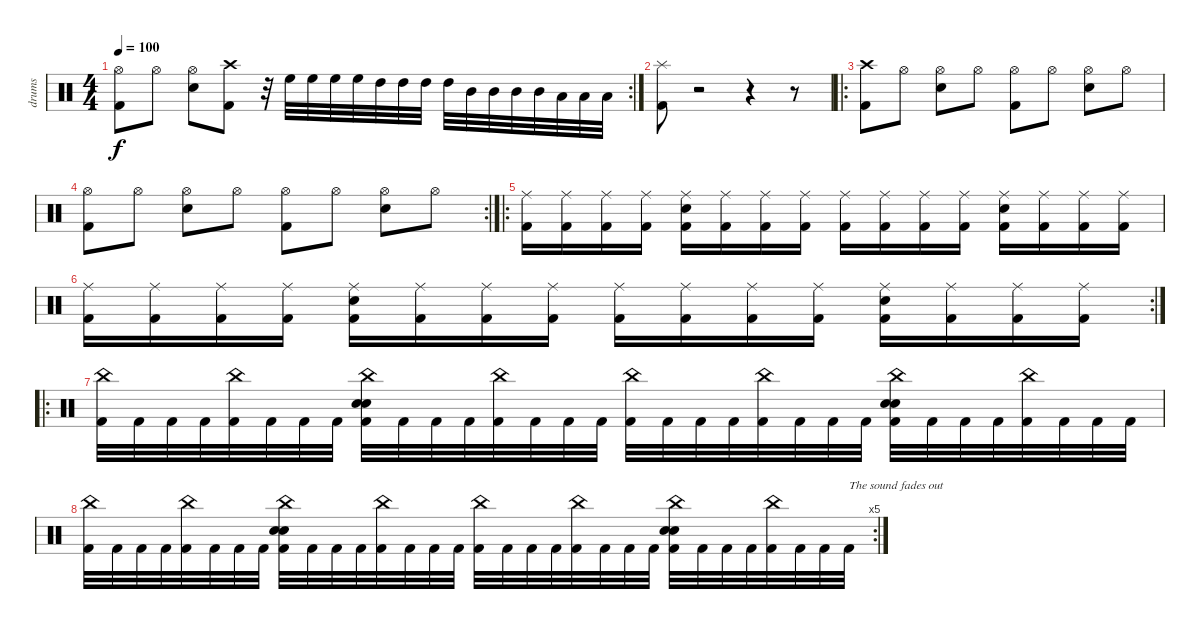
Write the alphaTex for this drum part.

\track ("drums" "drums") {instrument percussion}
\staff {score}
\articulation defaults
\rc 2
\ts (4 4)
\tempo 100
\clef neutral
\ks c
("Hi-Hat (open)" "Kick (hit) 2").8{dy f} "Hi-Hat (open)".8 ("Hi-Hat (open)" "Electric Snare (hit)").8 ("Crash high (hit)" "Kick (hit) 2").8 r.32 "High Floor Tom (hit)".32 "High Floor Tom (hit)".32 "High Floor Tom (hit)".32 "High Floor Tom (hit)".32 "High Tom (hit)".32 "High Tom (hit)".32 "High Tom (hit)".32 "High Tom (hit)".32 "Mid Tom (hit)".32 "Mid Tom (hit)".32 "Mid Tom (hit)".32 "Mid Tom (hit)".32 "Low Tom (hit)".32 "Low Tom (hit)".32 "Low Tom (hit)".32 |
("Splash (hit)" "Kick (hit) 2").8 r.2 r.4 r.8 |
\ro
\section ("" "")
("Kick (hit) 2" "Crash high (hit)").8 "Hi-Hat (open)".8 ("Electric Snare (hit)" "Hi-Hat (open)").8 "Hi-Hat (open)".8 ("Kick (hit) 2" "Hi-Hat (open)").8 "Hi-Hat (open)".8 ("Electric Snare (hit)" "Hi-Hat (open)").8 "Hi-Hat (open)".8 |
\rc 2
("Kick (hit) 2" "Hi-Hat (open)").8 "Hi-Hat (open)".8 ("Electric Snare (hit)" "Hi-Hat (open)").8 "Hi-Hat (open)".8 ("Kick (hit) 2" "Hi-Hat (open)").8 "Hi-Hat (open)".8 ("Electric Snare (hit)" "Hi-Hat (open)").8 "Hi-Hat (open)".8 |
\ro
("Ride (middle)" "Kick (hit) 2").16 ("Ride (middle)" "Kick (hit) 2").16 ("Ride (middle)" "Kick (hit) 2").16 ("Ride (middle)" "Kick (hit) 2").16 ("Electric Snare (hit)" "Ride (middle)" "Kick (hit) 2").16 ("Ride (middle)" "Kick (hit) 2").16 ("Ride (middle)" "Kick (hit) 2").16 ("Ride (middle)" "Kick (hit) 2").16 ("Ride (middle)" "Kick (hit) 2").16 ("Ride (middle)" "Kick (hit) 2").16 ("Ride (middle)" "Kick (hit) 2").16 ("Ride (middle)" "Kick (hit) 2").16 ("Electric Snare (hit)" "Ride (middle)" "Kick (hit) 2").16 ("Ride (middle)" "Kick (hit) 2").16 ("Ride (middle)" "Kick (hit) 2").16 ("Ride (middle)" "Kick (hit) 2").16 |
\rc 2
("Ride (middle)" "Kick (hit) 2").16 ("Ride (middle)" "Kick (hit) 2").16 ("Ride (middle)" "Kick (hit) 2").16 ("Ride (middle)" "Kick (hit) 2").16 ("Electric Snare (hit)" "Ride (middle)" "Kick (hit) 2").16 ("Ride (middle)" "Kick (hit) 2").16 ("Ride (middle)" "Kick (hit) 2").16 ("Ride (middle)" "Kick (hit) 2").16 ("Ride (middle)" "Kick (hit) 2").16 ("Ride (middle)" "Kick (hit) 2").16 ("Ride (middle)" "Kick (hit) 2").16 ("Ride (middle)" "Kick (hit) 2").16 ("Electric Snare (hit)" "Ride (middle)" "Kick (hit) 2").16 ("Ride (middle)" "Kick (hit) 2").16 ("Ride (middle)" "Kick (hit) 2").16 ("Ride (middle)" "Kick (hit) 2").16 |
\ro
("China (hit)" "Kick (hit) 2").32 "Kick (hit) 2".32 "Kick (hit) 2".32 "Kick (hit) 2".32 ("China (hit)" "Kick (hit) 2").32 "Kick (hit) 2".32 "Kick (hit) 2".32 "Kick (hit) 2".32 ("China (hit)" "Electric Snare (hit)" "Kick (hit) 2" "Electric Snare (hit)").32 "Kick (hit) 2".32 "Kick (hit) 2".32 "Kick (hit) 2".32 ("China (hit)" "Kick (hit) 2").32 "Kick (hit) 2".32 "Kick (hit) 2".32 "Kick (hit) 2".32 ("China (hit)" "Kick (hit) 2").32 "Kick (hit) 2".32 "Kick (hit) 2".32 "Kick (hit) 2".32 ("China (hit)" "Kick (hit) 2").32 "Kick (hit) 2".32 "Kick (hit) 2".32 "Kick (hit) 2".32 ("China (hit)" "Electric Snare (hit)" "Kick (hit) 2" "Electric Snare (hit)").32 "Kick (hit) 2".32 "Kick (hit) 2".32 "Kick (hit) 2".32 ("China (hit)" "Kick (hit) 2").32 "Kick (hit) 2".32 "Kick (hit) 2".32 "Kick (hit) 2".32 |
\rc 5
("China (hit)" "Kick (hit) 2").32 "Kick (hit) 2".32 "Kick (hit) 2".32 "Kick (hit) 2".32 ("China (hit)" "Kick (hit) 2").32 "Kick (hit) 2".32 "Kick (hit) 2".32 "Kick (hit) 2".32 ("China (hit)" "Electric Snare (hit)" "Kick (hit) 2" "Electric Snare (hit)").32 "Kick (hit) 2".32 "Kick (hit) 2".32 "Kick (hit) 2".32 ("China (hit)" "Kick (hit) 2").32 "Kick (hit) 2".32 "Kick (hit) 2".32 "Kick (hit) 2".32 ("China (hit)" "Kick (hit) 2").32 "Kick (hit) 2".32 "Kick (hit) 2".32 "Kick (hit) 2".32 ("China (hit)" "Kick (hit) 2").32 "Kick (hit) 2".32 "Kick (hit) 2".32 "Kick (hit) 2".32 ("China (hit)" "Electric Snare (hit)" "Kick (hit) 2" "Electric Snare (hit)").32 "Kick (hit) 2".32 "Kick (hit) 2".32 "Kick (hit) 2".32 ("China (hit)" "Kick (hit) 2").32 "Kick (hit) 2".32 "Kick (hit) 2".32 "Kick (hit) 2".32{txt "The sound fades out"}
